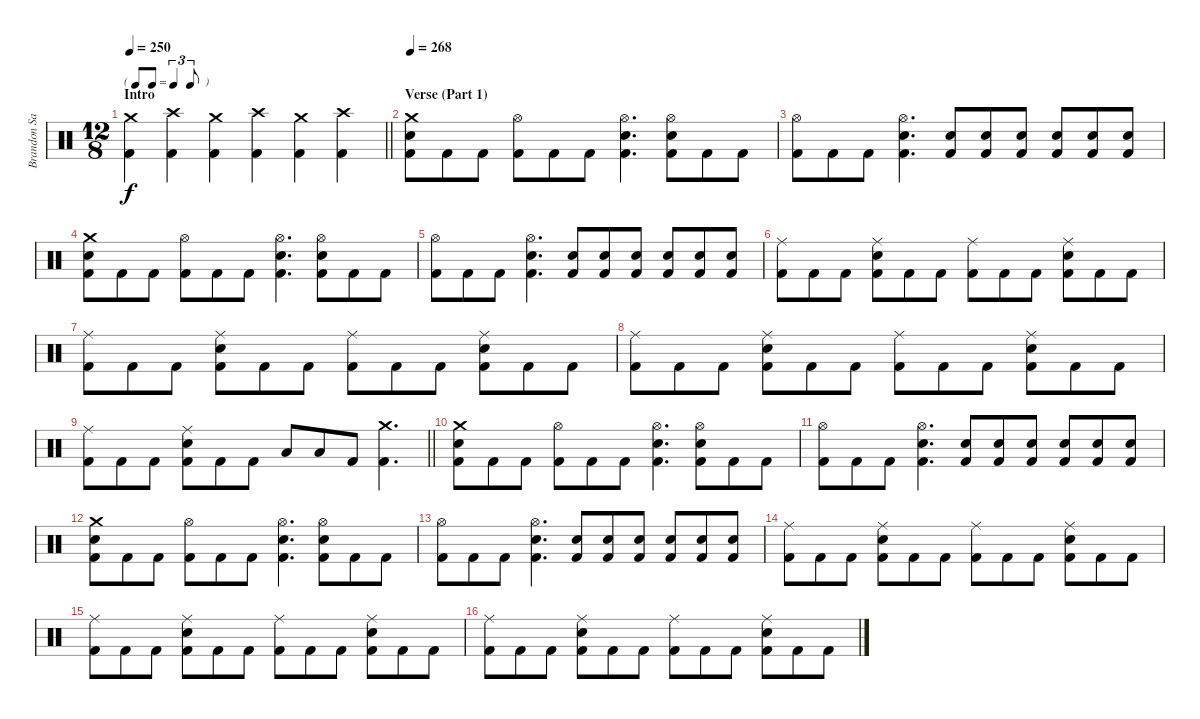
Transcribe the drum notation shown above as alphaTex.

\track ("Brandon Saller" "Brandon Sa") {instrument percussion}
\staff {score}
\articulation defaults
\ts (12 8)
\tf triplet8th
\section ("" "Intro")
\tempo 250
\clef neutral
\barLineRight lightlight
\ks c
("Crash medium (hit)" "Kick (hit) 2").4{dy f} ("Crash high (hit)" "Kick (hit) 2").4 ("Crash medium (hit)" "Kick (hit) 2").4 ("Crash high (hit)" "Kick (hit) 2").4 ("Crash medium (hit)" "Kick (hit) 2").4 ("Crash high (hit)" "Kick (hit) 2").4 |
\section ("" "Verse (Part 1)")
\tempo 268
("Crash medium (hit)" "Electric Snare (hit)" "Kick (hit) 2").8 "Kick (hit) 2".8 "Kick (hit) 2".8 ("Hi-Hat (open)" "Kick (hit) 2").8 "Kick (hit) 2".8 "Kick (hit) 2".8 ("Hi-Hat (open)" "Electric Snare (hit)" "Kick (hit) 2").4{d} ("Hi-Hat (open)" "Electric Snare (hit)" "Kick (hit) 2").8 "Kick (hit) 2".8 "Kick (hit) 2".8 |
("Hi-Hat (open)" "Kick (hit) 2").8 "Kick (hit) 2".8 "Kick (hit) 2".8 ("Hi-Hat (open)" "Electric Snare (hit)" "Kick (hit) 2").4{d} ("Electric Snare (hit)" "Kick (hit) 2").8 ("Electric Snare (hit)" "Kick (hit) 2").8 ("Electric Snare (hit)" "Kick (hit) 2").8 ("Electric Snare (hit)" "Kick (hit) 2").8 ("Electric Snare (hit)" "Kick (hit) 2").8 ("Electric Snare (hit)" "Kick (hit) 2").8 |
("Crash medium (hit)" "Electric Snare (hit)" "Kick (hit) 2").8 "Kick (hit) 2".8 "Kick (hit) 2".8 ("Hi-Hat (open)" "Kick (hit) 2").8 "Kick (hit) 2".8 "Kick (hit) 2".8 ("Hi-Hat (open)" "Electric Snare (hit)" "Kick (hit) 2").4{d} ("Hi-Hat (open)" "Electric Snare (hit)" "Kick (hit) 2").8 "Kick (hit) 2".8 "Kick (hit) 2".8 |
("Hi-Hat (open)" "Kick (hit) 2").8 "Kick (hit) 2".8 "Kick (hit) 2".8 ("Hi-Hat (open)" "Electric Snare (hit)" "Kick (hit) 2").4{d} ("Electric Snare (hit)" "Kick (hit) 2").8 ("Electric Snare (hit)" "Kick (hit) 2").8 ("Electric Snare (hit)" "Kick (hit) 2").8 ("Electric Snare (hit)" "Kick (hit) 2").8 ("Electric Snare (hit)" "Kick (hit) 2").8 ("Electric Snare (hit)" "Kick (hit) 2").8 |
("Ride (middle)" "Kick (hit) 2").8 "Kick (hit) 2".8 "Kick (hit) 2".8 ("Ride (middle)" "Electric Snare (hit)" "Kick (hit) 2").8 "Kick (hit) 2".8 "Kick (hit) 2".8 ("Ride (middle)" "Kick (hit) 2").8 "Kick (hit) 2".8 "Kick (hit) 2".8 ("Ride (middle)" "Electric Snare (hit)" "Kick (hit) 2").8 "Kick (hit) 2".8 "Kick (hit) 2".8 |
("Ride (middle)" "Kick (hit) 2").8 "Kick (hit) 2".8 "Kick (hit) 2".8 ("Ride (middle)" "Electric Snare (hit)" "Kick (hit) 2").8 "Kick (hit) 2".8 "Kick (hit) 2".8 ("Ride (middle)" "Kick (hit) 2").8 "Kick (hit) 2".8 "Kick (hit) 2".8 ("Ride (middle)" "Electric Snare (hit)" "Kick (hit) 2").8 "Kick (hit) 2".8 "Kick (hit) 2".8 |
("Ride (middle)" "Kick (hit) 2").8 "Kick (hit) 2".8 "Kick (hit) 2".8 ("Ride (middle)" "Electric Snare (hit)" "Kick (hit) 2").8 "Kick (hit) 2".8 "Kick (hit) 2".8 ("Ride (middle)" "Kick (hit) 2").8 "Kick (hit) 2".8 "Kick (hit) 2".8 ("Ride (middle)" "Electric Snare (hit)" "Kick (hit) 2").8 "Kick (hit) 2".8 "Kick (hit) 2".8 |
\barLineRight lightlight
("Ride (middle)" "Kick (hit) 2").8 "Kick (hit) 2".8 "Kick (hit) 2".8 ("Ride (middle)" "Electric Snare (hit)" "Kick (hit) 2").8 "Kick (hit) 2".8 "Kick (hit) 2".8 "Low Tom (hit)".8 "Low Floor Tom (hit)".8 "Kick (hit) 2".8 ("Crash medium (hit)" "Kick (hit) 2").4{d} |
("Crash medium (hit)" "Electric Snare (hit)" "Kick (hit) 2").8 "Kick (hit) 2".8 "Kick (hit) 2".8 ("Hi-Hat (open)" "Kick (hit) 2").8 "Kick (hit) 2".8 "Kick (hit) 2".8 ("Hi-Hat (open)" "Electric Snare (hit)" "Kick (hit) 2").4{d} ("Hi-Hat (open)" "Electric Snare (hit)" "Kick (hit) 2").8 "Kick (hit) 2".8 "Kick (hit) 2".8 |
("Hi-Hat (open)" "Kick (hit) 2").8 "Kick (hit) 2".8 "Kick (hit) 2".8 ("Hi-Hat (open)" "Electric Snare (hit)" "Kick (hit) 2").4{d} ("Electric Snare (hit)" "Kick (hit) 2").8 ("Electric Snare (hit)" "Kick (hit) 2").8 ("Electric Snare (hit)" "Kick (hit) 2").8 ("Electric Snare (hit)" "Kick (hit) 2").8 ("Electric Snare (hit)" "Kick (hit) 2").8 ("Electric Snare (hit)" "Kick (hit) 2").8 |
("Crash medium (hit)" "Electric Snare (hit)" "Kick (hit) 2").8 "Kick (hit) 2".8 "Kick (hit) 2".8 ("Hi-Hat (open)" "Kick (hit) 2").8 "Kick (hit) 2".8 "Kick (hit) 2".8 ("Hi-Hat (open)" "Electric Snare (hit)" "Kick (hit) 2").4{d} ("Hi-Hat (open)" "Electric Snare (hit)" "Kick (hit) 2").8 "Kick (hit) 2".8 "Kick (hit) 2".8 |
("Hi-Hat (open)" "Kick (hit) 2").8 "Kick (hit) 2".8 "Kick (hit) 2".8 ("Hi-Hat (open)" "Electric Snare (hit)" "Kick (hit) 2").4{d} ("Electric Snare (hit)" "Kick (hit) 2").8 ("Electric Snare (hit)" "Kick (hit) 2").8 ("Electric Snare (hit)" "Kick (hit) 2").8 ("Electric Snare (hit)" "Kick (hit) 2").8 ("Electric Snare (hit)" "Kick (hit) 2").8 ("Electric Snare (hit)" "Kick (hit) 2").8 |
("Ride (middle)" "Kick (hit) 2").8 "Kick (hit) 2".8 "Kick (hit) 2".8 ("Ride (middle)" "Electric Snare (hit)" "Kick (hit) 2").8 "Kick (hit) 2".8 "Kick (hit) 2".8 ("Ride (middle)" "Kick (hit) 2").8 "Kick (hit) 2".8 "Kick (hit) 2".8 ("Ride (middle)" "Electric Snare (hit)" "Kick (hit) 2").8 "Kick (hit) 2".8 "Kick (hit) 2".8 |
("Ride (middle)" "Kick (hit) 2").8 "Kick (hit) 2".8 "Kick (hit) 2".8 ("Ride (middle)" "Electric Snare (hit)" "Kick (hit) 2").8 "Kick (hit) 2".8 "Kick (hit) 2".8 ("Ride (middle)" "Kick (hit) 2").8 "Kick (hit) 2".8 "Kick (hit) 2".8 ("Ride (middle)" "Electric Snare (hit)" "Kick (hit) 2").8 "Kick (hit) 2".8 "Kick (hit) 2".8 |
("Ride (middle)" "Kick (hit) 2").8 "Kick (hit) 2".8 "Kick (hit) 2".8 ("Ride (middle)" "Electric Snare (hit)" "Kick (hit) 2").8 "Kick (hit) 2".8 "Kick (hit) 2".8 ("Ride (middle)" "Kick (hit) 2").8 "Kick (hit) 2".8 "Kick (hit) 2".8 ("Ride (middle)" "Electric Snare (hit)" "Kick (hit) 2").8 "Kick (hit) 2".8 "Kick (hit) 2".8
